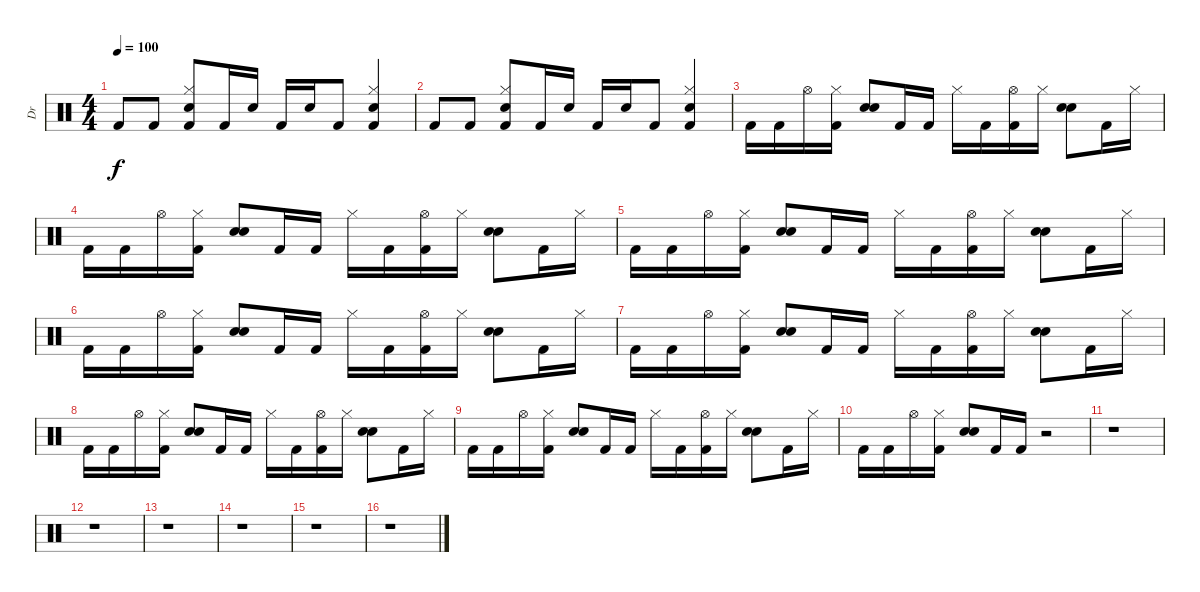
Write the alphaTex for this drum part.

\track ("Dr" "Dr") {instrument percussion}
\staff {score}
\articulation defaults
\ts (4 4)
\tempo 100
\clef neutral
\ks c "Kick (hit) 2".8{dy f} "Kick (hit) 2".8
("Hi-Hat (closed)" "Electric Snare (hit)" "Kick (hit) 2").8 "Kick (hit) 2".16 "Electric Snare (hit)".16 "Kick (hit) 2".16 "Electric Snare (hit)".16 "Kick (hit) 2".8 ("Hi-Hat (closed)" "Electric Snare (hit)" "Kick (hit) 2").4 |
"Kick (hit) 2".8 "Kick (hit) 2".8 ("Hi-Hat (closed)" "Electric Snare (hit)" "Kick (hit) 2").8 "Kick (hit) 2".16 "Electric Snare (hit)".16 "Kick (hit) 2".16 "Electric Snare (hit)".16 "Kick (hit) 2".8 ("Hi-Hat (closed)" "Electric Snare (hit)" "Kick (hit) 2").4 |
"Kick (hit) 2".16 "Kick (hit) 2".16 "Hi-Hat (open)".16 ("Hi-Hat (closed)" "Kick (hit) 2").16 ("Electric Snare (hit)" "Hand Clap (hit)").8 "Kick (hit) 2".16 "Kick (hit) 2".16 "Hi-Hat (closed)".16 "Kick (hit) 2".16 ("Hi-Hat (open)" "Kick (hit) 2").16 "Hi-Hat (closed)".16 ("Electric Snare (hit)" "Hand Clap (hit)").8 "Kick (hit) 2".16 "Hi-Hat (closed)".16 |
"Kick (hit) 2".16 "Kick (hit) 2".16 "Hi-Hat (open)".16 ("Hi-Hat (closed)" "Kick (hit) 2").16 ("Electric Snare (hit)" "Hand Clap (hit)").8 "Kick (hit) 2".16 "Kick (hit) 2".16 "Hi-Hat (closed)".16 "Kick (hit) 2".16 ("Hi-Hat (open)" "Kick (hit) 2").16 "Hi-Hat (closed)".16 ("Electric Snare (hit)" "Hand Clap (hit)").8 "Kick (hit) 2".16 "Hi-Hat (closed)".16 |
"Kick (hit) 2".16 "Kick (hit) 2".16 "Hi-Hat (open)".16 ("Hi-Hat (closed)" "Kick (hit) 2").16 ("Electric Snare (hit)" "Hand Clap (hit)").8 "Kick (hit) 2".16 "Kick (hit) 2".16 "Hi-Hat (closed)".16 "Kick (hit) 2".16 ("Hi-Hat (open)" "Kick (hit) 2").16 "Hi-Hat (closed)".16 ("Electric Snare (hit)" "Hand Clap (hit)").8 "Kick (hit) 2".16 "Hi-Hat (closed)".16 |
"Kick (hit) 2".16 "Kick (hit) 2".16 "Hi-Hat (open)".16 ("Hi-Hat (closed)" "Kick (hit) 2").16 ("Electric Snare (hit)" "Hand Clap (hit)").8 "Kick (hit) 2".16 "Kick (hit) 2".16 "Hi-Hat (closed)".16 "Kick (hit) 2".16 ("Hi-Hat (open)" "Kick (hit) 2").16 "Hi-Hat (closed)".16 ("Electric Snare (hit)" "Hand Clap (hit)").8 "Kick (hit) 2".16 "Hi-Hat (closed)".16 |
"Kick (hit) 2".16 "Kick (hit) 2".16 "Hi-Hat (open)".16 ("Hi-Hat (closed)" "Kick (hit) 2").16 ("Electric Snare (hit)" "Hand Clap (hit)").8 "Kick (hit) 2".16 "Kick (hit) 2".16 "Hi-Hat (closed)".16 "Kick (hit) 2".16 ("Hi-Hat (open)" "Kick (hit) 2").16 "Hi-Hat (closed)".16 ("Electric Snare (hit)" "Hand Clap (hit)").8 "Kick (hit) 2".16 "Hi-Hat (closed)".16 |
"Kick (hit) 2".16 "Kick (hit) 2".16 "Hi-Hat (open)".16 ("Hi-Hat (closed)" "Kick (hit) 2").16 ("Electric Snare (hit)" "Hand Clap (hit)").8 "Kick (hit) 2".16 "Kick (hit) 2".16 "Hi-Hat (closed)".16 "Kick (hit) 2".16 ("Hi-Hat (open)" "Kick (hit) 2").16 "Hi-Hat (closed)".16 ("Electric Snare (hit)" "Hand Clap (hit)").8 "Kick (hit) 2".16 "Hi-Hat (closed)".16 |
"Kick (hit) 2".16 "Kick (hit) 2".16 "Hi-Hat (open)".16 ("Hi-Hat (closed)" "Kick (hit) 2").16 ("Electric Snare (hit)" "Hand Clap (hit)").8 "Kick (hit) 2".16 "Kick (hit) 2".16 "Hi-Hat (closed)".16 "Kick (hit) 2".16 ("Hi-Hat (open)" "Kick (hit) 2").16 "Hi-Hat (closed)".16 ("Electric Snare (hit)" "Hand Clap (hit)").8 "Kick (hit) 2".16 "Hi-Hat (closed)".16 |
"Kick (hit) 2".16 "Kick (hit) 2".16 "Hi-Hat (open)".16 ("Hi-Hat (closed)" "Kick (hit) 2").16 ("Electric Snare (hit)" "Hand Clap (hit)").8 "Kick (hit) 2".16 "Kick (hit) 2".16 r.2 |
r.1{volume 16} |
r.1 |
r.1 |
r.1 |
r.1 |
r.1
